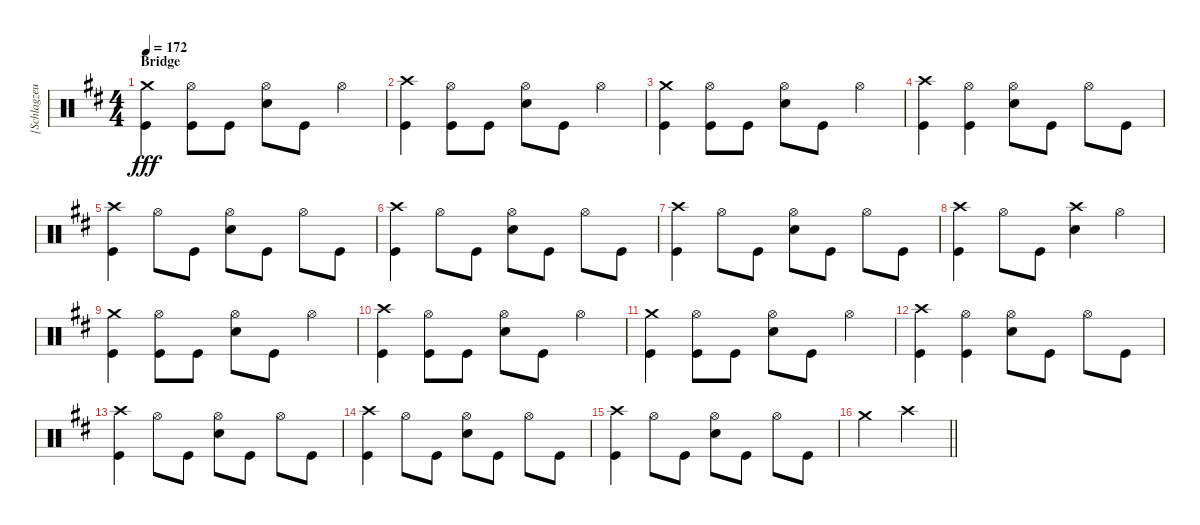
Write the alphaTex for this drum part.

\track ("[Schlagzeug]" "[Schlagzeu") {instrument percussion}
\staff {score}
\articulation defaults
\ts (4 4)
\section ("" "Bridge")
\tempo 172
\clef neutral
\ks d
("Crash medium (hit)" "Kick (hit)").4{dy fff} ("Hi-Hat (open)" "Kick (hit)").8 "Kick (hit)".8 ("Hi-Hat (open)" "Electric Snare (hit)").8 "Kick (hit)".8 "Hi-Hat (open)".4 |
("Crash high (hit)" "Kick (hit)").4 ("Hi-Hat (open)" "Kick (hit)").8 "Kick (hit)".8 ("Hi-Hat (open)" "Electric Snare (hit)").8 "Kick (hit)".8 "Hi-Hat (open)".4 |
("Crash medium (hit)" "Kick (hit)").4 ("Hi-Hat (open)" "Kick (hit)").8 "Kick (hit)".8 ("Hi-Hat (open)" "Electric Snare (hit)").8 "Kick (hit)".8 "Hi-Hat (open)".4 |
("Crash high (hit)" "Kick (hit)").4 ("Hi-Hat (open)" "Kick (hit)").4 ("Hi-Hat (open)" "Electric Snare (hit)").8 "Kick (hit)".8 "Hi-Hat (open)".8 "Kick (hit)".8 |
("Crash high (hit)" "Kick (hit)").4 "Hi-Hat (open)".8 "Kick (hit)".8 ("Hi-Hat (open)" "Electric Snare (hit)").8 "Kick (hit)".8 "Hi-Hat (open)".8 "Kick (hit)".8 |
("Crash high (hit)" "Kick (hit)").4 "Hi-Hat (open)".8 "Kick (hit)".8 ("Hi-Hat (open)" "Electric Snare (hit)").8 "Kick (hit)".8 "Hi-Hat (open)".8 "Kick (hit)".8 |
("Crash high (hit)" "Kick (hit)").4 "Hi-Hat (open)".8 "Kick (hit)".8 ("Hi-Hat (open)" "Electric Snare (hit)").8 "Kick (hit)".8 "Hi-Hat (open)".8 "Kick (hit)".8 |
("Crash high (hit)" "Kick (hit)").4 "Hi-Hat (open)".8 "Kick (hit)".8 ("Crash high (hit)" "Electric Snare (hit)").4 "Hi-Hat (open)".4 |
("Crash medium (hit)" "Kick (hit)").4 ("Hi-Hat (open)" "Kick (hit)").8 "Kick (hit)".8 ("Hi-Hat (open)" "Electric Snare (hit)").8 "Kick (hit)".8 "Hi-Hat (open)".4 |
("Crash high (hit)" "Kick (hit)").4 ("Hi-Hat (open)" "Kick (hit)").8 "Kick (hit)".8 ("Hi-Hat (open)" "Electric Snare (hit)").8 "Kick (hit)".8 "Hi-Hat (open)".4 |
("Crash medium (hit)" "Kick (hit)").4 ("Hi-Hat (open)" "Kick (hit)").8 "Kick (hit)".8 ("Hi-Hat (open)" "Electric Snare (hit)").8 "Kick (hit)".8 "Hi-Hat (open)".4 |
("Crash high (hit)" "Kick (hit)").4 ("Hi-Hat (open)" "Kick (hit)").4 ("Hi-Hat (open)" "Electric Snare (hit)").8 "Kick (hit)".8 "Hi-Hat (open)".8 "Kick (hit)".8 |
("Crash high (hit)" "Kick (hit)").4 "Hi-Hat (open)".8 "Kick (hit)".8 ("Hi-Hat (open)" "Electric Snare (hit)").8 "Kick (hit)".8 "Hi-Hat (open)".8 "Kick (hit)".8 |
("Crash high (hit)" "Kick (hit)").4 "Hi-Hat (open)".8 "Kick (hit)".8 ("Hi-Hat (open)" "Electric Snare (hit)").8 "Kick (hit)".8 "Hi-Hat (open)".8 "Kick (hit)".8 |
("Crash high (hit)" "Kick (hit)").4 "Hi-Hat (open)".8 "Kick (hit)".8 ("Hi-Hat (open)" "Electric Snare (hit)").8 "Kick (hit)".8 "Hi-Hat (open)".8 "Kick (hit)".8 |
\barLineRight lightlight "Crash medium (hit)".2 "Crash high (hit)".2
